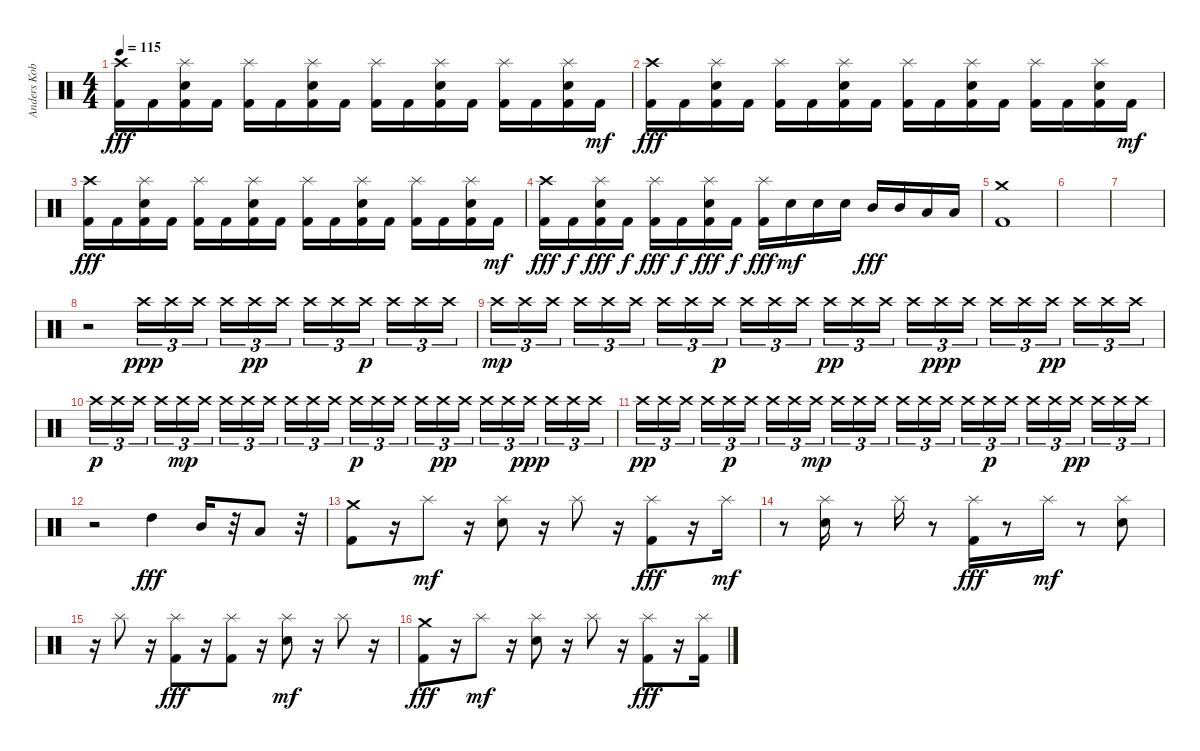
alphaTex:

\track ("Anders Kobro " "Anders Kob") {instrument percussion}
\staff {score}
\articulation defaults
\ts (4 4)
\tempo 115
\clef neutral
\ks c
("Crash high (hit)" "Kick (hit) 2").16{dy fff} "Kick (hit) 2".16 ("Splash (hit)" "Snare (hit) 2" "Kick (hit) 2").16 "Kick (hit) 2".16 ("Splash (hit)" "Kick (hit) 2").16 "Kick (hit) 2".16 ("Splash (hit)" "Snare (hit) 2" "Kick (hit) 2").16 "Kick (hit) 2".16 ("Splash (hit)" "Kick (hit) 2").16 "Kick (hit) 2".16 ("Splash (hit)" "Snare (hit) 2" "Kick (hit) 2").16 "Kick (hit) 2".16 ("Splash (hit)" "Kick (hit) 2").16 "Kick (hit) 2".16 ("Splash (hit)" "Snare (hit) 2" "Kick (hit) 2").16 "Kick (hit) 2".16{dy mf} |
("Crash high (hit)" "Kick (hit) 2").16{dy fff} "Kick (hit) 2".16 ("Splash (hit)" "Snare (hit) 2" "Kick (hit) 2").16 "Kick (hit) 2".16 ("Splash (hit)" "Kick (hit) 2").16 "Kick (hit) 2".16 ("Splash (hit)" "Snare (hit) 2" "Kick (hit) 2").16 "Kick (hit) 2".16 ("Splash (hit)" "Kick (hit) 2").16 "Kick (hit) 2".16 ("Splash (hit)" "Snare (hit) 2" "Kick (hit) 2").16 "Kick (hit) 2".16 ("Splash (hit)" "Kick (hit) 2").16 "Kick (hit) 2".16 ("Splash (hit)" "Snare (hit) 2" "Kick (hit) 2").16 "Kick (hit) 2".16{dy mf} |
("Crash high (hit)" "Kick (hit) 2").16{dy fff} "Kick (hit) 2".16 ("Splash (hit)" "Snare (hit) 2" "Kick (hit) 2").16 "Kick (hit) 2".16 ("Splash (hit)" "Kick (hit) 2").16 "Kick (hit) 2".16 ("Splash (hit)" "Snare (hit) 2" "Kick (hit) 2").16 "Kick (hit) 2".16 ("Splash (hit)" "Kick (hit) 2").16 "Kick (hit) 2".16 ("Splash (hit)" "Snare (hit) 2" "Kick (hit) 2").16 "Kick (hit) 2".16 ("Splash (hit)" "Kick (hit) 2").16 "Kick (hit) 2".16 ("Splash (hit)" "Snare (hit) 2" "Kick (hit) 2").16 "Kick (hit) 2".16{dy mf} |
("Crash high (hit)" "Kick (hit) 2").16{dy fff} "Kick (hit) 2".16{dy f} ("Splash (hit)" "Snare (hit) 2" "Kick (hit) 2").16{dy fff} "Kick (hit) 2".16{dy f} ("Splash (hit)" "Kick (hit) 2").16{dy fff} "Kick (hit) 2".16{dy f} ("Splash (hit)" "Snare (hit) 2" "Kick (hit) 2").16{dy fff} "Kick (hit) 2".16{dy f} ("Splash (hit)" "Kick (hit) 2").16{dy fff} "Snare (hit) 2".16{dy mf} "Snare (hit) 2".16 "Snare (hit) 2".16 "Mid Tom (hit)".16{dy fff} "Mid Tom (hit)".16 "Low Tom (hit)".16 "Low Tom (hit)".16 |
("Crash medium (hit)" "Kick (hit) 2").1 |
|
|
r.2 "Crash high (hit)".16{tu (3 2) dy ppp} "Crash high (hit)".16{tu (3 2)} "Crash high (hit)".16{tu (3 2) beam splitsecondary} "Crash high (hit)".16{tu (3 2)} "Crash high (hit)".16{tu (3 2) dy pp} "Crash high (hit)".16{tu (3 2)} "Crash high (hit)".16{tu (3 2)} "Crash high (hit)".16{tu (3 2)} "Crash high (hit)".16{tu (3 2) dy p beam splitsecondary} "Crash high (hit)".16{tu (3 2)} "Crash high (hit)".16{tu (3 2)} "Crash high (hit)".16{tu (3 2)} |
"Crash high (hit)".16{tu (3 2) dy mp} "Crash high (hit)".16{tu (3 2)} "Crash high (hit)".16{tu (3 2) beam splitsecondary} "Crash high (hit)".16{tu (3 2)} "Crash high (hit)".16{tu (3 2)} "Crash high (hit)".16{tu (3 2)} "Crash high (hit)".16{tu (3 2)} "Crash high (hit)".16{tu (3 2)} "Crash high (hit)".16{tu (3 2) dy p beam splitsecondary} "Crash high (hit)".16{tu (3 2)} "Crash high (hit)".16{tu (3 2)} "Crash high (hit)".16{tu (3 2)} "Crash high (hit)".16{tu (3 2) dy pp} "Crash high (hit)".16{tu (3 2)} "Crash high (hit)".16{tu (3 2) beam splitsecondary} "Crash high (hit)".16{tu (3 2)} "Crash high (hit)".16{tu (3 2) dy ppp} "Crash high (hit)".16{tu (3 2)} "Crash high (hit)".16{tu (3 2)} "Crash high (hit)".16{tu (3 2)} "Crash high (hit)".16{tu (3 2) dy pp beam splitsecondary} "Crash high (hit)".16{tu (3 2)} "Crash high (hit)".16{tu (3 2)} "Crash high (hit)".16{tu (3 2)} |
"Crash high (hit)".16{tu (3 2) dy p} "Crash high (hit)".16{tu (3 2)} "Crash high (hit)".16{tu (3 2) beam splitsecondary} "Crash high (hit)".16{tu (3 2)} "Crash high (hit)".16{tu (3 2) dy mp} "Crash high (hit)".16{tu (3 2)} "Crash high (hit)".16{tu (3 2)} "Crash high (hit)".16{tu (3 2)} "Crash high (hit)".16{tu (3 2) beam splitsecondary} "Crash high (hit)".16{tu (3 2)} "Crash high (hit)".16{tu (3 2)} "Crash high (hit)".16{tu (3 2)} "Crash high (hit)".16{tu (3 2) dy p} "Crash high (hit)".16{tu (3 2)} "Crash high (hit)".16{tu (3 2) beam splitsecondary} "Crash high (hit)".16{tu (3 2)} "Crash high (hit)".16{tu (3 2) dy pp} "Crash high (hit)".16{tu (3 2)} "Crash high (hit)".16{tu (3 2)} "Crash high (hit)".16{tu (3 2)} "Crash high (hit)".16{tu (3 2) dy ppp beam splitsecondary} "Crash high (hit)".16{tu (3 2)} "Crash high (hit)".16{tu (3 2)} "Crash high (hit)".16{tu (3 2)} |
"Crash high (hit)".16{tu (3 2) dy pp} "Crash high (hit)".16{tu (3 2)} "Crash high (hit)".16{tu (3 2) beam splitsecondary} "Crash high (hit)".16{tu (3 2)} "Crash high (hit)".16{tu (3 2) dy p} "Crash high (hit)".16{tu (3 2)} "Crash high (hit)".16{tu (3 2)} "Crash high (hit)".16{tu (3 2)} "Crash high (hit)".16{tu (3 2) dy mp beam splitsecondary} "Crash high (hit)".16{tu (3 2)} "Crash high (hit)".16{tu (3 2)} "Crash high (hit)".16{tu (3 2)} "Crash high (hit)".16{tu (3 2)} "Crash high (hit)".16{tu (3 2)} "Crash high (hit)".16{tu (3 2) beam splitsecondary} "Crash high (hit)".16{tu (3 2)} "Crash high (hit)".16{tu (3 2) dy p} "Crash high (hit)".16{tu (3 2)} "Crash high (hit)".16{tu (3 2)} "Crash high (hit)".16{tu (3 2)} "Crash high (hit)".16{tu (3 2) dy pp beam splitsecondary} "Crash high (hit)".16{tu (3 2)} "Crash high (hit)".16{tu (3 2)} "Crash high (hit)".16{tu (3 2)} |
r.2 "High Tom (hit)".4{dy fff} "Mid Tom (hit)".16 r.32 "Low Tom (hit)".8 r.32 |
("Crash medium (hit)" "Kick (hit) 2").8 r.16 "Splash (hit)".8{dy mf} r.16 ("Splash (hit)" "Snare (hit) 2").8 r.16 "Splash (hit)".8 r.16 ("Splash (hit)" "Kick (hit) 2").8{dy fff} r.16 "Splash (hit)".16{dy mf} |
r.8 ("Splash (hit)" "Snare (hit) 2").16 r.8 "Splash (hit)".16 r.8 ("Splash (hit)" "Kick (hit) 2").16{dy fff} r.8 "Splash (hit)".16{dy mf} r.8 ("Splash (hit)" "Snare (hit) 2").8 |
r.16 "Splash (hit)".8 r.16 ("Splash (hit)" "Kick (hit) 2").8{dy fff} r.16 ("Splash (hit)" "Kick (hit) 2").8 r.16 ("Splash (hit)" "Snare (hit) 2").8{dy mf} r.16 "Splash (hit)".8 r.16 |
("Crash medium (hit)" "Kick (hit) 2").8{dy fff} r.16 "Splash (hit)".8{dy mf} r.16 ("Splash (hit)" "Snare (hit) 2").8 r.16 "Splash (hit)".8 r.16 ("Splash (hit)" "Kick (hit) 2").8{dy fff} r.16 ("Splash (hit)" "Kick (hit) 2").16
